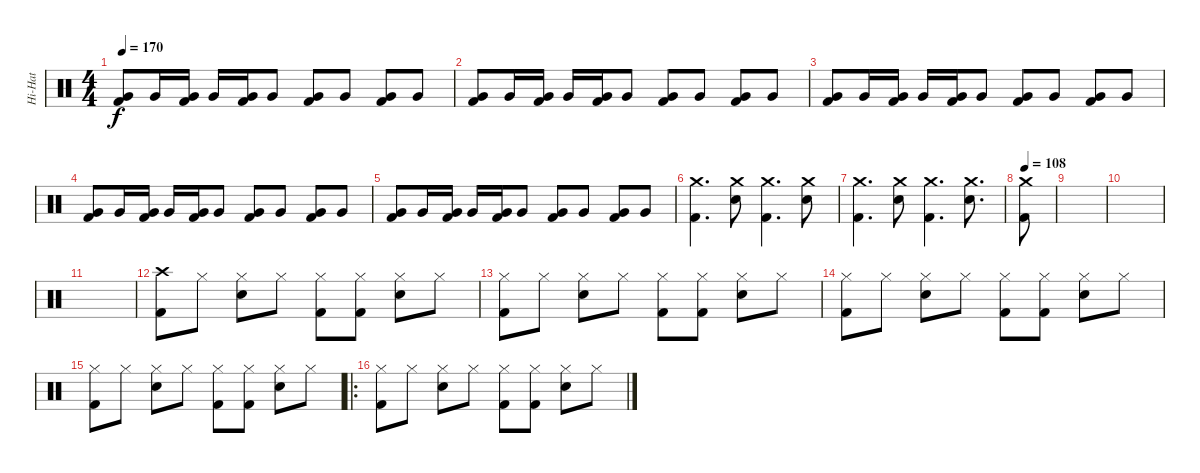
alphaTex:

\track ("Hi-Hat" "Hi-Hat") {instrument percussion}
\staff {score}
\articulation defaults
\ts (4 4)
\tempo 170
\clef neutral
\ks c
("Very Low Tom (hit)" "Kick (hit) 2").8{dy f} "Very Low Tom (hit)".16 ("Very Low Tom (hit)" "Kick (hit) 2").16 "Very Low Tom (hit)".16 ("Very Low Tom (hit)" "Kick (hit) 2").16 "Very Low Tom (hit)".8 ("Very Low Tom (hit)" "Kick (hit) 2").8 "Very Low Tom (hit)".8 ("Very Low Tom (hit)" "Kick (hit) 2").8 "Very Low Tom (hit)".8 |
("Very Low Tom (hit)" "Kick (hit) 2").8 "Very Low Tom (hit)".16 ("Very Low Tom (hit)" "Kick (hit) 2").16 "Very Low Tom (hit)".16 ("Very Low Tom (hit)" "Kick (hit) 2").16 "Very Low Tom (hit)".8 ("Very Low Tom (hit)" "Kick (hit) 2").8 "Very Low Tom (hit)".8 ("Very Low Tom (hit)" "Kick (hit) 2").8 "Very Low Tom (hit)".8 |
("Very Low Tom (hit)" "Kick (hit) 2").8 "Very Low Tom (hit)".16 ("Very Low Tom (hit)" "Kick (hit) 2").16 "Very Low Tom (hit)".16 ("Very Low Tom (hit)" "Kick (hit) 2").16 "Very Low Tom (hit)".8 ("Very Low Tom (hit)" "Kick (hit) 2").8 "Very Low Tom (hit)".8 ("Very Low Tom (hit)" "Kick (hit) 2").8 "Very Low Tom (hit)".8 |
("Very Low Tom (hit)" "Kick (hit) 2").8 "Very Low Tom (hit)".16 ("Very Low Tom (hit)" "Kick (hit) 2").16 "Very Low Tom (hit)".16 ("Very Low Tom (hit)" "Kick (hit) 2").16 "Very Low Tom (hit)".8 ("Very Low Tom (hit)" "Kick (hit) 2").8 "Very Low Tom (hit)".8 ("Very Low Tom (hit)" "Kick (hit) 2").8 "Very Low Tom (hit)".8 |
("Very Low Tom (hit)" "Kick (hit) 2").8 "Very Low Tom (hit)".16 ("Very Low Tom (hit)" "Kick (hit) 2").16 "Very Low Tom (hit)".16 ("Very Low Tom (hit)" "Kick (hit) 2").16 "Very Low Tom (hit)".8 ("Very Low Tom (hit)" "Kick (hit) 2").8 "Very Low Tom (hit)".8 ("Very Low Tom (hit)" "Kick (hit) 2").8 "Very Low Tom (hit)".8 |
("Crash medium (hit)" "Kick (hit) 2").4{d} ("Crash medium (hit)" "Snare (hit) 2").8 ("Crash medium (hit)" "Kick (hit) 2").4{d} ("Crash medium (hit)" "Snare (hit) 2").8 |
("Crash medium (hit)" "Kick (hit) 2").4{d} ("Crash medium (hit)" "Snare (hit) 2").8 ("Crash medium (hit)" "Kick (hit) 2").4{d} ("Crash medium (hit)" "Snare (hit) 2").8{d} |
\tempo 108
("Crash medium (hit)" "Kick (hit) 2").8 |
|
|
|
("Crash high (hit)" "Kick (hit) 2").8 "Hi-Hat (closed)".8 ("Hi-Hat (closed)" "Snare (hit) 2").8 "Hi-Hat (closed)".8 ("Hi-Hat (closed)" "Kick (hit) 2").8 ("Hi-Hat (closed)" "Kick (hit) 2").8 ("Hi-Hat (closed)" "Snare (hit) 2").8 "Hi-Hat (closed)".8 |
("Hi-Hat (closed)" "Kick (hit) 2").8 "Hi-Hat (closed)".8 ("Hi-Hat (closed)" "Snare (hit) 2").8 "Hi-Hat (closed)".8 ("Hi-Hat (closed)" "Kick (hit) 2").8 ("Hi-Hat (closed)" "Kick (hit) 2").8 ("Hi-Hat (closed)" "Snare (hit) 2").8 "Hi-Hat (closed)".8 |
("Hi-Hat (closed)" "Kick (hit) 2").8 "Hi-Hat (closed)".8 ("Hi-Hat (closed)" "Snare (hit) 2").8 "Hi-Hat (closed)".8 ("Hi-Hat (closed)" "Kick (hit) 2").8 ("Hi-Hat (closed)" "Kick (hit) 2").8 ("Hi-Hat (closed)" "Snare (hit) 2").8 "Hi-Hat (closed)".8 |
("Hi-Hat (closed)" "Kick (hit) 2").8 "Hi-Hat (closed)".8 ("Hi-Hat (closed)" "Snare (hit) 2").8 "Hi-Hat (closed)".8 ("Hi-Hat (closed)" "Kick (hit) 2").8 ("Hi-Hat (closed)" "Kick (hit) 2").8 ("Hi-Hat (closed)" "Snare (hit) 2").8 "Hi-Hat (closed)".8 |
\ro
("Hi-Hat (closed)" "Kick (hit) 2").8 "Hi-Hat (closed)".8 ("Hi-Hat (closed)" "Snare (hit) 2").8 "Hi-Hat (closed)".8 ("Hi-Hat (closed)" "Kick (hit) 2").8 ("Hi-Hat (closed)" "Kick (hit) 2").8 ("Hi-Hat (closed)" "Snare (hit) 2").8 "Hi-Hat (closed)".8
